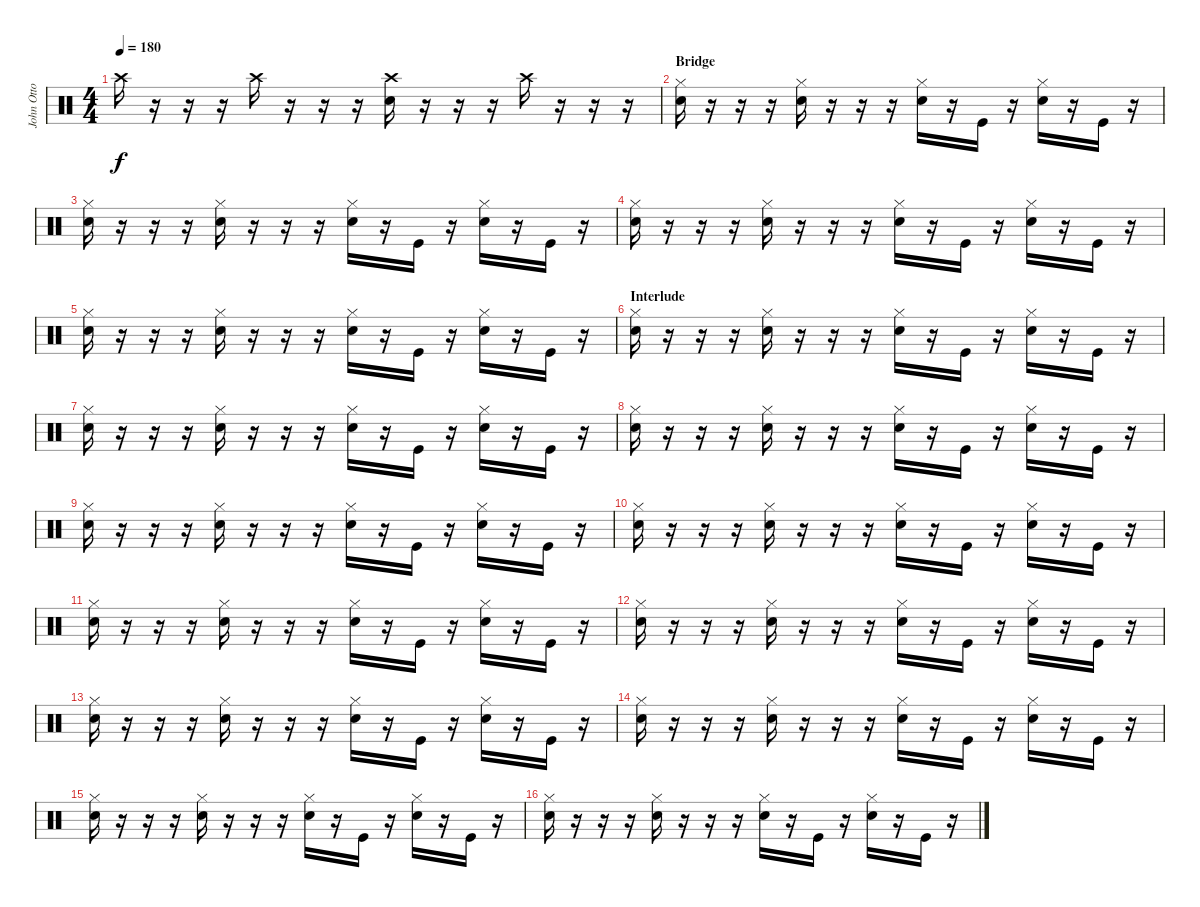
\track ("John Otto" "John Otto") {instrument percussion}
\staff {score}
\articulation defaults
\ts (4 4)
\tempo 180
\clef neutral
\ks c "Crash high (hit)".16{dy f}
r.16 r.16 r.16 "Crash high (hit)".16 r.16 r.16 r.16 ("Crash high (hit)" "Snare (hit) 2").16 r.16 r.16 r.16 "Crash high (hit)".16 r.16 r.16 r.16 |
\section ("" "Bridge")
("Hi-Hat (closed)" "Electric Snare (hit)").16 r.16 r.16 r.16 ("Hi-Hat (closed)" "Electric Snare (hit)").16 r.16 r.16 r.16 ("Hi-Hat (closed)" "Electric Snare (hit)").16 r.16 "Kick (hit)".16 r.16 ("Hi-Hat (closed)" "Electric Snare (hit)").16 r.16 "Kick (hit)".16 r.16 |
("Hi-Hat (closed)" "Electric Snare (hit)").16 r.16 r.16 r.16 ("Hi-Hat (closed)" "Electric Snare (hit)").16 r.16 r.16 r.16 ("Hi-Hat (closed)" "Electric Snare (hit)").16 r.16 "Kick (hit)".16 r.16 ("Hi-Hat (closed)" "Electric Snare (hit)").16 r.16 "Kick (hit)".16 r.16 |
("Hi-Hat (closed)" "Electric Snare (hit)").16 r.16 r.16 r.16 ("Hi-Hat (closed)" "Electric Snare (hit)").16 r.16 r.16 r.16 ("Hi-Hat (closed)" "Electric Snare (hit)").16 r.16 "Kick (hit)".16 r.16 ("Hi-Hat (closed)" "Electric Snare (hit)").16 r.16 "Kick (hit)".16 r.16 |
("Hi-Hat (closed)" "Electric Snare (hit)").16 r.16 r.16 r.16 ("Hi-Hat (closed)" "Electric Snare (hit)").16 r.16 r.16 r.16 ("Hi-Hat (closed)" "Electric Snare (hit)").16 r.16 "Kick (hit)".16 r.16 ("Hi-Hat (closed)" "Electric Snare (hit)").16 r.16 "Kick (hit)".16 r.16 |
\section ("" "Interlude")
("Hi-Hat (closed)" "Electric Snare (hit)").16 r.16 r.16 r.16 ("Hi-Hat (closed)" "Electric Snare (hit)").16 r.16 r.16 r.16 ("Hi-Hat (closed)" "Electric Snare (hit)").16 r.16 "Kick (hit)".16 r.16 ("Hi-Hat (closed)" "Electric Snare (hit)").16 r.16 "Kick (hit)".16 r.16 |
("Hi-Hat (closed)" "Electric Snare (hit)").16 r.16 r.16 r.16 ("Hi-Hat (closed)" "Electric Snare (hit)").16 r.16 r.16 r.16 ("Hi-Hat (closed)" "Electric Snare (hit)").16 r.16 "Kick (hit)".16 r.16 ("Hi-Hat (closed)" "Electric Snare (hit)").16 r.16 "Kick (hit)".16 r.16 |
("Hi-Hat (closed)" "Electric Snare (hit)").16 r.16 r.16 r.16 ("Hi-Hat (closed)" "Electric Snare (hit)").16 r.16 r.16 r.16 ("Hi-Hat (closed)" "Electric Snare (hit)").16 r.16 "Kick (hit)".16 r.16 ("Hi-Hat (closed)" "Electric Snare (hit)").16 r.16 "Kick (hit)".16 r.16 |
("Hi-Hat (closed)" "Electric Snare (hit)").16 r.16 r.16 r.16 ("Hi-Hat (closed)" "Electric Snare (hit)").16 r.16 r.16 r.16 ("Hi-Hat (closed)" "Electric Snare (hit)").16 r.16 "Kick (hit)".16 r.16 ("Hi-Hat (closed)" "Electric Snare (hit)").16 r.16 "Kick (hit)".16 r.16 |
("Hi-Hat (closed)" "Electric Snare (hit)").16 r.16 r.16 r.16 ("Hi-Hat (closed)" "Electric Snare (hit)").16 r.16 r.16 r.16 ("Hi-Hat (closed)" "Electric Snare (hit)").16 r.16 "Kick (hit)".16 r.16 ("Hi-Hat (closed)" "Electric Snare (hit)").16 r.16 "Kick (hit)".16 r.16 |
("Hi-Hat (closed)" "Electric Snare (hit)").16 r.16 r.16 r.16 ("Hi-Hat (closed)" "Electric Snare (hit)").16 r.16 r.16 r.16 ("Hi-Hat (closed)" "Electric Snare (hit)").16 r.16 "Kick (hit)".16 r.16 ("Hi-Hat (closed)" "Electric Snare (hit)").16 r.16 "Kick (hit)".16 r.16 |
("Hi-Hat (closed)" "Electric Snare (hit)").16 r.16 r.16 r.16 ("Hi-Hat (closed)" "Electric Snare (hit)").16 r.16 r.16 r.16 ("Hi-Hat (closed)" "Electric Snare (hit)").16 r.16 "Kick (hit)".16 r.16 ("Hi-Hat (closed)" "Electric Snare (hit)").16 r.16 "Kick (hit)".16 r.16 |
("Hi-Hat (closed)" "Electric Snare (hit)").16 r.16 r.16 r.16 ("Hi-Hat (closed)" "Electric Snare (hit)").16 r.16 r.16 r.16 ("Hi-Hat (closed)" "Electric Snare (hit)").16 r.16 "Kick (hit)".16 r.16 ("Hi-Hat (closed)" "Electric Snare (hit)").16 r.16 "Kick (hit)".16 r.16 |
("Hi-Hat (closed)" "Electric Snare (hit)").16 r.16 r.16 r.16 ("Hi-Hat (closed)" "Electric Snare (hit)").16 r.16 r.16 r.16 ("Hi-Hat (closed)" "Electric Snare (hit)").16 r.16 "Kick (hit)".16 r.16 ("Hi-Hat (closed)" "Electric Snare (hit)").16 r.16 "Kick (hit)".16 r.16 |
("Hi-Hat (closed)" "Electric Snare (hit)").16 r.16 r.16 r.16 ("Hi-Hat (closed)" "Electric Snare (hit)").16 r.16 r.16 r.16 ("Hi-Hat (closed)" "Electric Snare (hit)").16 r.16 "Kick (hit)".16 r.16 ("Hi-Hat (closed)" "Electric Snare (hit)").16 r.16 "Kick (hit)".16 r.16 |
("Hi-Hat (closed)" "Electric Snare (hit)").16 r.16 r.16 r.16 ("Hi-Hat (closed)" "Electric Snare (hit)").16 r.16 r.16 r.16 ("Hi-Hat (closed)" "Electric Snare (hit)").16 r.16 "Kick (hit)".16 r.16 ("Hi-Hat (closed)" "Electric Snare (hit)").16 r.16 "Kick (hit)".16 r.16
